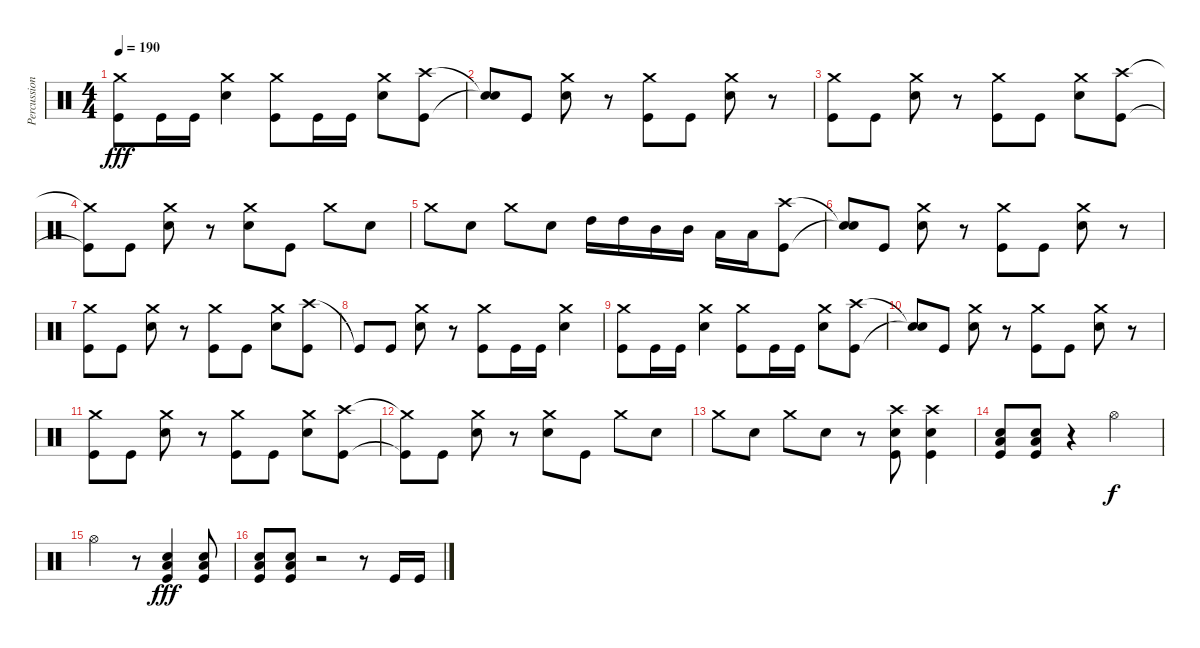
\track ("Percussion" "Percussion") {instrument percussion}
\staff {score}
\articulation defaults
\ts (4 4)
\tempo 190
\clef neutral
\ks c
("Crash medium (hit)" "Kick (hit)").8{dy fff} "Kick (hit)".16 "Kick (hit)".16 ("Crash medium (hit)" "Snare (hit) 2").4 ("Crash medium (hit)" "Kick (hit)").8 "Kick (hit)".16 "Kick (hit)".16 ("Crash medium (hit)" "Snare (hit) 2").8 ("Crash high (hit)" "Kick (hit)").8 |
("Snare (hit)"{t} "Snare (hit)"{t}).8 "Kick (hit)".8 ("Crash medium (hit)" "Snare (hit) 2").8 r.8 ("Crash medium (hit)" "Kick (hit)").8 "Kick (hit)".8 ("Crash medium (hit)" "Snare (hit) 2").8 r.8 |
("Crash medium (hit)" "Kick (hit)").8 "Kick (hit)".8 ("Crash medium (hit)" "Snare (hit) 2").8 r.8 ("Crash medium (hit)" "Kick (hit)").8 "Kick (hit)".8 ("Crash medium (hit)" "Snare (hit) 2").8 ("Crash high (hit)" "Kick (hit)").8 |
("Crash medium (hit)"{t} "Kick (hit)"{t}).8 "Kick (hit)".8 ("Crash medium (hit)" "Snare (hit) 2").8 r.8 ("Crash medium (hit)" "Snare (hit) 2").8 "Kick (hit)".8 "Crash medium (hit)".8 "Snare (hit) 2".8 |
"Crash medium (hit)".8 "Snare (hit) 2".8 "Crash medium (hit)".8 "Snare (hit) 2".8 "High Tom (hit)".16 "High Tom (hit)".16 "Mid Tom (hit)".16 "Mid Tom (hit)".16 "Low Tom (hit)".16 "Low Tom (hit)".16 ("Crash high (hit)" "Kick (hit)").8 |
("Snare (hit)"{t} "Snare (hit)"{t}).8 "Kick (hit)".8 ("Crash medium (hit)" "Snare (hit) 2").8 r.8 ("Crash medium (hit)" "Kick (hit)").8 "Kick (hit)".8 ("Crash medium (hit)" "Snare (hit) 2").8 r.8 |
("Crash medium (hit)" "Kick (hit)").8 "Kick (hit)".8 ("Crash medium (hit)" "Snare (hit) 2").8 r.8 ("Crash medium (hit)" "Kick (hit)").8 "Kick (hit)".8 ("Crash medium (hit)" "Snare (hit) 2").8 ("Crash high (hit)" "Kick (hit)").8 |
"Kick (hit)"{t}.8 "Kick (hit)".8 ("Crash medium (hit)" "Snare (hit) 2").8 r.8 ("Crash medium (hit)" "Kick (hit)").8 "Kick (hit)".16 "Kick (hit)".16 ("Crash medium (hit)" "Snare (hit) 2").4 |
("Crash medium (hit)" "Kick (hit)").8 "Kick (hit)".16 "Kick (hit)".16 ("Crash medium (hit)" "Snare (hit) 2").4 ("Crash medium (hit)" "Kick (hit)").8 "Kick (hit)".16 "Kick (hit)".16 ("Crash medium (hit)" "Snare (hit) 2").8 ("Crash high (hit)" "Kick (hit)").8 |
("Snare (hit)"{t} "Snare (hit)"{t}).8 "Kick (hit)".8 ("Crash medium (hit)" "Snare (hit) 2").8 r.8 ("Crash medium (hit)" "Kick (hit)").8 "Kick (hit)".8 ("Crash medium (hit)" "Snare (hit) 2").8 r.8 |
("Crash medium (hit)" "Kick (hit)").8 "Kick (hit)".8 ("Crash medium (hit)" "Snare (hit) 2").8 r.8 ("Crash medium (hit)" "Kick (hit)").8 "Kick (hit)".8 ("Crash medium (hit)" "Snare (hit) 2").8 ("Crash high (hit)" "Kick (hit)").8 |
("Crash medium (hit)"{t} "Kick (hit)"{t}).8 "Kick (hit)".8 ("Crash medium (hit)" "Snare (hit) 2").8 r.8 ("Crash medium (hit)" "Snare (hit) 2").8 "Kick (hit)".8 "Crash medium (hit)".8 "Snare (hit) 2".8 |
"Crash medium (hit)".8 "Snare (hit) 2".8 "Crash medium (hit)".8 "Snare (hit) 2".8 r.8 ("Crash high (hit)" "Snare (hit) 2" "Kick (hit)").8 ("Crash high (hit)" "Snare (hit) 2" "Kick (hit)").4 |
("Low Tom (hit)" "Snare (hit) 2" "Kick (hit)").8 ("Low Tom (hit)" "Snare (hit) 2" "Kick (hit)").8 r.4 "Hi-Hat (open)".2{dy f} |
"Hi-Hat (open)".2 r.8 ("Kick (hit)" "Low Tom (hit)" "Snare (hit) 2").4{dy fff} ("Snare (hit) 2" "Low Tom (hit)" "Kick (hit)").8 |
("Kick (hit)" "Low Tom (hit)" "Snare (hit) 2").8 ("Kick (hit)" "Low Tom (hit)" "Snare (hit) 2").8 r.2 r.8 "Kick (hit)".16 "Kick (hit)".16
